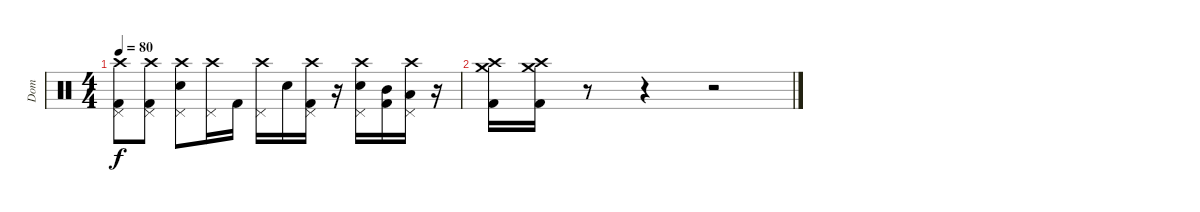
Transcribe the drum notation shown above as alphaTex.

\track ("Dom" "Dom") {instrument percussion}
\staff {score}
\articulation defaults
\ts (4 4)
\tempo 80
\clef neutral
\ks c
("Crash high (hit)" "Pedal Hi-Hat (hit)" "Kick (hit) 2").8{dy f} ("Crash high (hit)" "Pedal Hi-Hat (hit)" "Kick (hit) 2").8 ("Crash high (hit)" "Snare (hit) 2" "Pedal Hi-Hat (hit)").8 ("Crash high (hit)" "Pedal Hi-Hat (hit)").16 "Kick (hit) 2".16 ("Crash high (hit)" "Pedal Hi-Hat (hit)").16 "Snare (hit) 2".16 ("Crash high (hit)" "Pedal Hi-Hat (hit)" "Kick (hit) 2").16 r.16 ("Crash high (hit)" "Snare (hit) 2" "Pedal Hi-Hat (hit)").16 ("Mid Tom (hit)" "Kick (hit) 2").16 ("Crash high (hit)" "Low Tom (hit)" "Pedal Hi-Hat (hit)").16 r.16 |
("Crash medium (hit)" "Crash high (hit)" "Kick (hit) 2").16 ("Crash medium (hit)" "Crash high (hit)" "Kick (hit) 2").16 r.8 r.4 r.2
